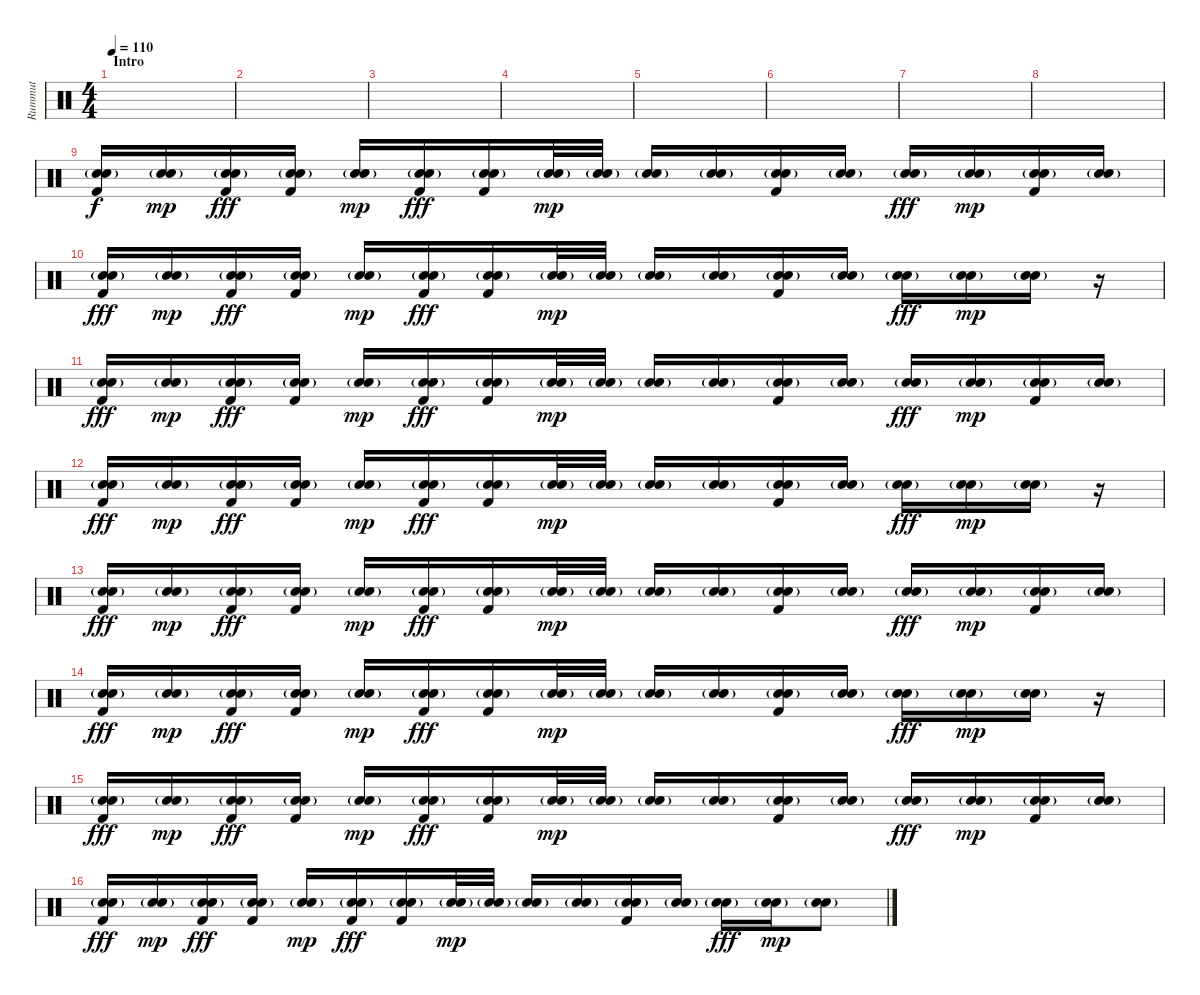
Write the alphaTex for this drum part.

\track ("Rummut" "Rummut") {instrument percussion}
\staff {score}
\articulation defaults
\ts (4 4)
\section ("" "Intro")
\tempo 110
\clef neutral
\ks c
|
|
|
|
|
|
|
|
("Kick (hit) 2" "Snare (hit) 2"{g} "Electric Snare (hit)").16 ("Snare (hit) 2"{g} "Electric Snare (hit)").16{dy mp} ("Kick (hit) 2" "Snare (hit) 2"{g} "Electric Snare (hit)").16{dy fff} ("Kick (hit) 2" "Snare (hit) 2"{g} "Electric Snare (hit)").16 ("Snare (hit) 2"{g} "Electric Snare (hit)").16{dy mp} ("Kick (hit) 2" "Snare (hit) 2"{g} "Electric Snare (hit)").16{dy fff} ("Kick (hit) 2" "Snare (hit) 2"{g} "Electric Snare (hit)").16 ("Snare (hit) 2"{g} "Electric Snare (hit)").32{dy mp} ("Snare (hit) 2"{g} "Electric Snare (hit)").32 ("Snare (hit) 2"{g} "Electric Snare (hit)").16 ("Snare (hit) 2"{g} "Electric Snare (hit)").16 ("Kick (hit) 2" "Snare (hit) 2"{g} "Electric Snare (hit)").16 ("Snare (hit) 2"{g} "Electric Snare (hit)").16 ("Snare (hit) 2"{g} "Electric Snare (hit)").16{dy fff} ("Snare (hit) 2"{g} "Electric Snare (hit)").16{dy mp} ("Kick (hit) 2" "Snare (hit) 2"{g} "Electric Snare (hit)").16 ("Snare (hit) 2"{g} "Electric Snare (hit)").16 |
("Kick (hit) 2" "Snare (hit) 2"{g} "Electric Snare (hit)").16{dy fff} ("Snare (hit) 2"{g} "Electric Snare (hit)").16{dy mp} ("Kick (hit) 2" "Snare (hit) 2"{g} "Electric Snare (hit)").16{dy fff} ("Kick (hit) 2" "Snare (hit) 2"{g} "Electric Snare (hit)").16 ("Snare (hit) 2"{g} "Electric Snare (hit)").16{dy mp} ("Kick (hit) 2" "Snare (hit) 2"{g} "Electric Snare (hit)").16{dy fff} ("Kick (hit) 2" "Snare (hit) 2"{g} "Electric Snare (hit)").16 ("Snare (hit) 2"{g} "Electric Snare (hit)").32{dy mp} ("Snare (hit) 2"{g} "Electric Snare (hit)").32 ("Snare (hit) 2"{g} "Electric Snare (hit)").16 ("Snare (hit) 2"{g} "Electric Snare (hit)").16 ("Kick (hit) 2" "Snare (hit) 2"{g} "Electric Snare (hit)").16 ("Snare (hit) 2"{g} "Electric Snare (hit)").16 ("Snare (hit) 2"{g} "Electric Snare (hit)").16{dy fff} ("Snare (hit) 2"{g} "Electric Snare (hit)").16{dy mp} ("Snare (hit) 2"{g} "Electric Snare (hit)").16 r.16 |
("Kick (hit) 2" "Snare (hit) 2"{g} "Electric Snare (hit)").16{dy fff} ("Snare (hit) 2"{g} "Electric Snare (hit)").16{dy mp} ("Kick (hit) 2" "Snare (hit) 2"{g} "Electric Snare (hit)").16{dy fff} ("Kick (hit) 2" "Snare (hit) 2"{g} "Electric Snare (hit)").16 ("Snare (hit) 2"{g} "Electric Snare (hit)").16{dy mp} ("Kick (hit) 2" "Snare (hit) 2"{g} "Electric Snare (hit)").16{dy fff} ("Kick (hit) 2" "Snare (hit) 2"{g} "Electric Snare (hit)").16 ("Snare (hit) 2"{g} "Electric Snare (hit)").32{dy mp} ("Snare (hit) 2"{g} "Electric Snare (hit)").32 ("Snare (hit) 2"{g} "Electric Snare (hit)").16 ("Snare (hit) 2"{g} "Electric Snare (hit)").16 ("Kick (hit) 2" "Snare (hit) 2"{g} "Electric Snare (hit)").16 ("Snare (hit) 2"{g} "Electric Snare (hit)").16 ("Snare (hit) 2"{g} "Electric Snare (hit)").16{dy fff} ("Snare (hit) 2"{g} "Electric Snare (hit)").16{dy mp} ("Kick (hit) 2" "Snare (hit) 2"{g} "Electric Snare (hit)").16 ("Snare (hit) 2"{g} "Electric Snare (hit)").16 |
("Kick (hit) 2" "Snare (hit) 2"{g} "Electric Snare (hit)").16{dy fff} ("Snare (hit) 2"{g} "Electric Snare (hit)").16{dy mp} ("Kick (hit) 2" "Snare (hit) 2"{g} "Electric Snare (hit)").16{dy fff} ("Kick (hit) 2" "Snare (hit) 2"{g} "Electric Snare (hit)").16 ("Snare (hit) 2"{g} "Electric Snare (hit)").16{dy mp} ("Kick (hit) 2" "Snare (hit) 2"{g} "Electric Snare (hit)").16{dy fff} ("Kick (hit) 2" "Snare (hit) 2"{g} "Electric Snare (hit)").16 ("Snare (hit) 2"{g} "Electric Snare (hit)").32{dy mp} ("Snare (hit) 2"{g} "Electric Snare (hit)").32 ("Snare (hit) 2"{g} "Electric Snare (hit)").16 ("Snare (hit) 2"{g} "Electric Snare (hit)").16 ("Kick (hit) 2" "Snare (hit) 2"{g} "Electric Snare (hit)").16 ("Snare (hit) 2"{g} "Electric Snare (hit)").16 ("Snare (hit) 2"{g} "Electric Snare (hit)").16{dy fff} ("Snare (hit) 2"{g} "Electric Snare (hit)").16{dy mp} ("Snare (hit) 2"{g} "Electric Snare (hit)").16 r.16 |
("Kick (hit) 2" "Snare (hit) 2"{g} "Electric Snare (hit)").16{dy fff} ("Snare (hit) 2"{g} "Electric Snare (hit)").16{dy mp} ("Kick (hit) 2" "Snare (hit) 2"{g} "Electric Snare (hit)").16{dy fff} ("Kick (hit) 2" "Snare (hit) 2"{g} "Electric Snare (hit)").16 ("Snare (hit) 2"{g} "Electric Snare (hit)").16{dy mp} ("Kick (hit) 2" "Snare (hit) 2"{g} "Electric Snare (hit)").16{dy fff} ("Kick (hit) 2" "Snare (hit) 2"{g} "Electric Snare (hit)").16 ("Snare (hit) 2"{g} "Electric Snare (hit)").32{dy mp} ("Snare (hit) 2"{g} "Electric Snare (hit)").32 ("Snare (hit) 2"{g} "Electric Snare (hit)").16 ("Snare (hit) 2"{g} "Electric Snare (hit)").16 ("Kick (hit) 2" "Snare (hit) 2"{g} "Electric Snare (hit)").16 ("Snare (hit) 2"{g} "Electric Snare (hit)").16 ("Snare (hit) 2"{g} "Electric Snare (hit)").16{dy fff} ("Snare (hit) 2"{g} "Electric Snare (hit)").16{dy mp} ("Kick (hit) 2" "Snare (hit) 2"{g} "Electric Snare (hit)").16 ("Snare (hit) 2"{g} "Electric Snare (hit)").16 |
("Kick (hit) 2" "Snare (hit) 2"{g} "Electric Snare (hit)").16{dy fff} ("Snare (hit) 2"{g} "Electric Snare (hit)").16{dy mp} ("Kick (hit) 2" "Snare (hit) 2"{g} "Electric Snare (hit)").16{dy fff} ("Kick (hit) 2" "Snare (hit) 2"{g} "Electric Snare (hit)").16 ("Snare (hit) 2"{g} "Electric Snare (hit)").16{dy mp} ("Kick (hit) 2" "Snare (hit) 2"{g} "Electric Snare (hit)").16{dy fff} ("Kick (hit) 2" "Snare (hit) 2"{g} "Electric Snare (hit)").16 ("Snare (hit) 2"{g} "Electric Snare (hit)").32{dy mp} ("Snare (hit) 2"{g} "Electric Snare (hit)").32 ("Snare (hit) 2"{g} "Electric Snare (hit)").16 ("Snare (hit) 2"{g} "Electric Snare (hit)").16 ("Kick (hit) 2" "Snare (hit) 2"{g} "Electric Snare (hit)").16 ("Snare (hit) 2"{g} "Electric Snare (hit)").16 ("Snare (hit) 2"{g} "Electric Snare (hit)").16{dy fff} ("Snare (hit) 2"{g} "Electric Snare (hit)").16{dy mp} ("Snare (hit) 2"{g} "Electric Snare (hit)").16 r.16 |
("Kick (hit) 2" "Snare (hit) 2"{g} "Electric Snare (hit)").16{dy fff} ("Snare (hit) 2"{g} "Electric Snare (hit)").16{dy mp} ("Kick (hit) 2" "Snare (hit) 2"{g} "Electric Snare (hit)").16{dy fff} ("Kick (hit) 2" "Snare (hit) 2"{g} "Electric Snare (hit)").16 ("Snare (hit) 2"{g} "Electric Snare (hit)").16{dy mp} ("Kick (hit) 2" "Snare (hit) 2"{g} "Electric Snare (hit)").16{dy fff} ("Kick (hit) 2" "Snare (hit) 2"{g} "Electric Snare (hit)").16 ("Snare (hit) 2"{g} "Electric Snare (hit)").32{dy mp} ("Snare (hit) 2"{g} "Electric Snare (hit)").32 ("Snare (hit) 2"{g} "Electric Snare (hit)").16 ("Snare (hit) 2"{g} "Electric Snare (hit)").16 ("Kick (hit) 2" "Snare (hit) 2"{g} "Electric Snare (hit)").16 ("Snare (hit) 2"{g} "Electric Snare (hit)").16 ("Snare (hit) 2"{g} "Electric Snare (hit)").16{dy fff} ("Snare (hit) 2"{g} "Electric Snare (hit)").16{dy mp} ("Kick (hit) 2" "Snare (hit) 2"{g} "Electric Snare (hit)").16 ("Snare (hit) 2"{g} "Electric Snare (hit)").16 |
("Kick (hit) 2" "Snare (hit) 2"{g} "Electric Snare (hit)").16{dy fff} ("Snare (hit) 2"{g} "Electric Snare (hit)").16{dy mp} ("Kick (hit) 2" "Snare (hit) 2"{g} "Electric Snare (hit)").16{dy fff} ("Kick (hit) 2" "Snare (hit) 2"{g} "Electric Snare (hit)").16 ("Snare (hit) 2"{g} "Electric Snare (hit)").16{dy mp} ("Kick (hit) 2" "Snare (hit) 2"{g} "Electric Snare (hit)").16{dy fff} ("Kick (hit) 2" "Snare (hit) 2"{g} "Electric Snare (hit)").16 ("Snare (hit) 2"{g} "Electric Snare (hit)").32{dy mp} ("Snare (hit) 2"{g} "Electric Snare (hit)").32 ("Snare (hit) 2"{g} "Electric Snare (hit)").16 ("Snare (hit) 2"{g} "Electric Snare (hit)").16 ("Kick (hit) 2" "Snare (hit) 2"{g} "Electric Snare (hit)").16 ("Snare (hit) 2"{g} "Electric Snare (hit)").16 ("Snare (hit) 2"{g} "Electric Snare (hit)").16{dy fff} ("Snare (hit) 2"{g} "Electric Snare (hit)").16{dy mp} ("Snare (hit) 2"{g} "Electric Snare (hit)").8
